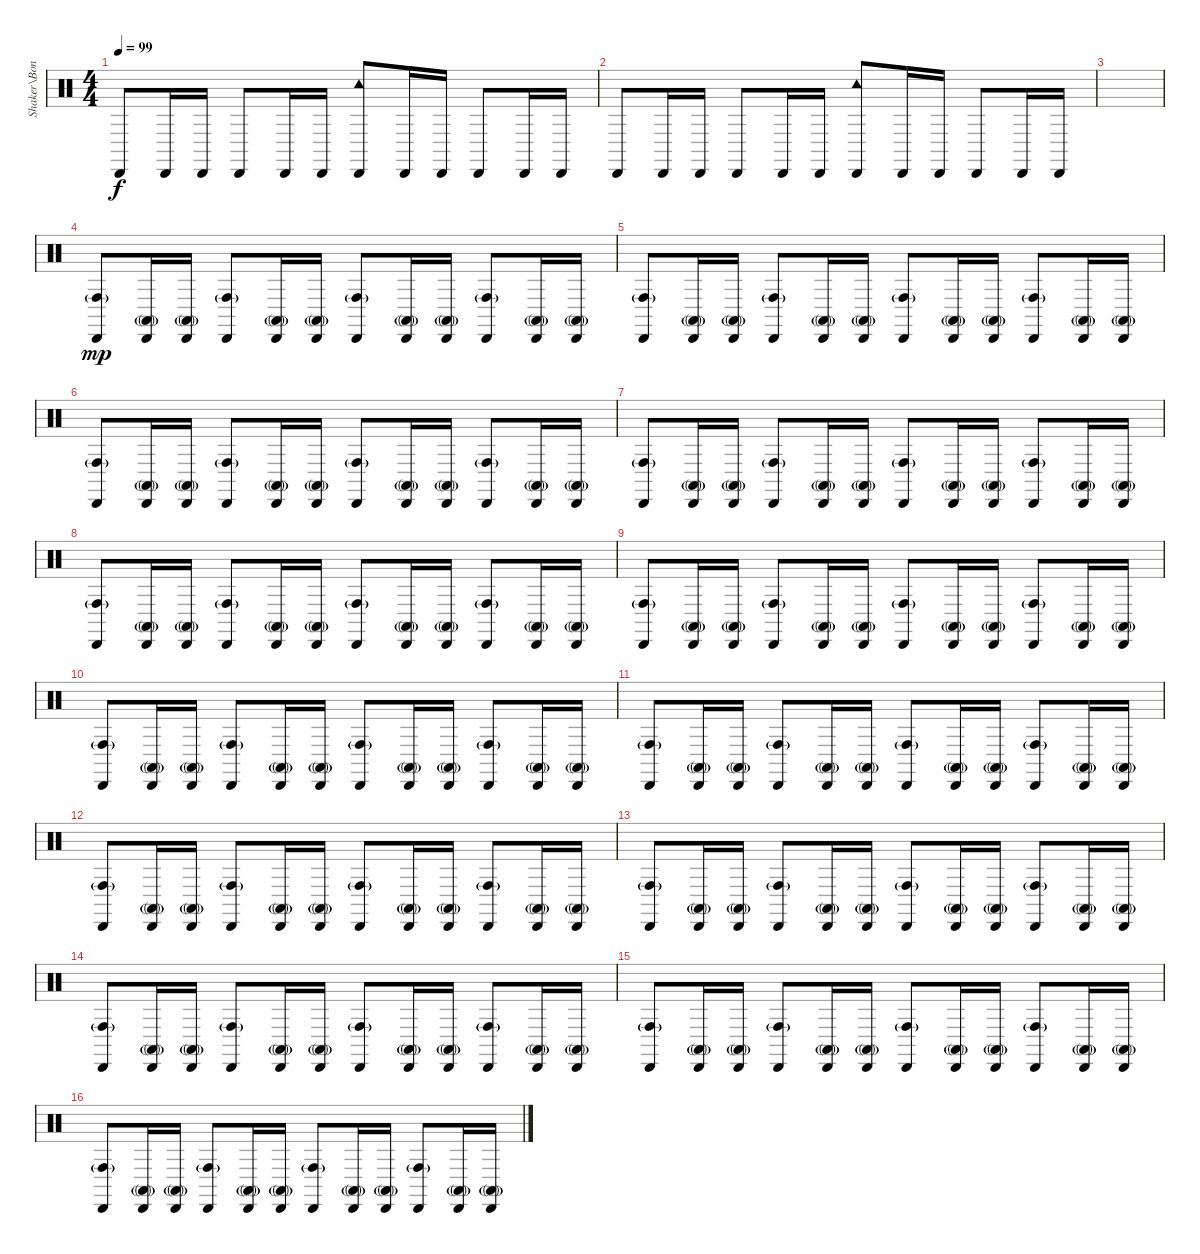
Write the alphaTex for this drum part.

\track ("Shaker\\Bongos" "Shaker\\Bon") {instrument percussion}
\staff {score}
\articulation defaults
\ts (4 4)
\tempo 99
\clef neutral
\ks c "Cabasa (hit)".8{dy f} "Cabasa (hit)".16 "Cabasa (hit)".16 "Cabasa (hit)".8 "Cabasa (hit)".16 "Cabasa (hit)".16
("Cabasa (hit)" "Tambourine (hit)").8 "Cabasa (hit)".16 "Cabasa (hit)".16 "Cabasa (hit)".8 "Cabasa (hit)".16 "Cabasa (hit)".16 |
"Cabasa (hit)".8 "Cabasa (hit)".16 "Cabasa (hit)".16 "Cabasa (hit)".8 "Cabasa (hit)".16 "Cabasa (hit)".16 ("Cabasa (hit)" "Tambourine (hit)").8 "Cabasa (hit)".16 "Cabasa (hit)".16 "Cabasa (hit)".8 "Cabasa (hit)".16 "Cabasa (hit)".16 |
|
("Cabasa (hit)" "Conga high (hit)"{g}).8{dy mp} ("Cabasa (hit)" "Conga high (mute)"{g}).16 ("Cabasa (hit)" "Conga high (mute)"{g}).16 ("Cabasa (hit)" "Conga high (hit)"{g}).8 ("Cabasa (hit)" "Conga high (mute)"{g}).16 ("Cabasa (hit)" "Conga high (mute)"{g}).16 ("Cabasa (hit)" "Conga high (hit)"{g}).8 ("Cabasa (hit)" "Conga high (mute)"{g}).16 ("Cabasa (hit)" "Conga high (mute)"{g}).16 ("Cabasa (hit)" "Conga high (hit)"{g}).8 ("Cabasa (hit)" "Conga high (mute)"{g}).16 ("Cabasa (hit)" "Conga high (mute)"{g}).16 |
("Cabasa (hit)" "Conga high (hit)"{g}).8 ("Cabasa (hit)" "Conga high (mute)"{g}).16 ("Cabasa (hit)" "Conga high (mute)"{g}).16 ("Cabasa (hit)" "Conga high (hit)"{g}).8 ("Cabasa (hit)" "Conga high (mute)"{g}).16 ("Cabasa (hit)" "Conga high (mute)"{g}).16 ("Cabasa (hit)" "Conga high (hit)"{g}).8 ("Cabasa (hit)" "Conga high (mute)"{g}).16 ("Cabasa (hit)" "Conga high (mute)"{g}).16 ("Cabasa (hit)" "Conga high (hit)"{g}).8 ("Cabasa (hit)" "Conga high (mute)"{g}).16 ("Cabasa (hit)" "Conga high (mute)"{g}).16 |
("Cabasa (hit)" "Conga high (hit)"{g}).8 ("Cabasa (hit)" "Conga high (mute)"{g}).16 ("Cabasa (hit)" "Conga high (mute)"{g}).16 ("Cabasa (hit)" "Conga high (hit)"{g}).8 ("Cabasa (hit)" "Conga high (mute)"{g}).16 ("Cabasa (hit)" "Conga high (mute)"{g}).16 ("Cabasa (hit)" "Conga high (hit)"{g}).8 ("Cabasa (hit)" "Conga high (mute)"{g}).16 ("Cabasa (hit)" "Conga high (mute)"{g}).16 ("Cabasa (hit)" "Conga high (hit)"{g}).8 ("Cabasa (hit)" "Conga high (mute)"{g}).16 ("Cabasa (hit)" "Conga high (mute)"{g}).16 |
("Cabasa (hit)" "Conga high (hit)"{g}).8 ("Cabasa (hit)" "Conga high (mute)"{g}).16 ("Cabasa (hit)" "Conga high (mute)"{g}).16 ("Cabasa (hit)" "Conga high (hit)"{g}).8 ("Cabasa (hit)" "Conga high (mute)"{g}).16 ("Cabasa (hit)" "Conga high (mute)"{g}).16 ("Cabasa (hit)" "Conga high (hit)"{g}).8 ("Cabasa (hit)" "Conga high (mute)"{g}).16 ("Cabasa (hit)" "Conga high (mute)"{g}).16 ("Cabasa (hit)" "Conga high (hit)"{g}).8 ("Cabasa (hit)" "Conga high (mute)"{g}).16 ("Cabasa (hit)" "Conga high (mute)"{g}).16 |
("Cabasa (hit)" "Conga high (hit)"{g}).8 ("Cabasa (hit)" "Conga high (mute)"{g}).16 ("Cabasa (hit)" "Conga high (mute)"{g}).16 ("Cabasa (hit)" "Conga high (hit)"{g}).8 ("Cabasa (hit)" "Conga high (mute)"{g}).16 ("Cabasa (hit)" "Conga high (mute)"{g}).16 ("Cabasa (hit)" "Conga high (hit)"{g}).8 ("Cabasa (hit)" "Conga high (mute)"{g}).16 ("Cabasa (hit)" "Conga high (mute)"{g}).16 ("Cabasa (hit)" "Conga high (hit)"{g}).8 ("Cabasa (hit)" "Conga high (mute)"{g}).16 ("Cabasa (hit)" "Conga high (mute)"{g}).16 |
("Cabasa (hit)" "Conga high (hit)"{g}).8 ("Cabasa (hit)" "Conga high (mute)"{g}).16 ("Cabasa (hit)" "Conga high (mute)"{g}).16 ("Cabasa (hit)" "Conga high (hit)"{g}).8 ("Cabasa (hit)" "Conga high (mute)"{g}).16 ("Cabasa (hit)" "Conga high (mute)"{g}).16 ("Cabasa (hit)" "Conga high (hit)"{g}).8 ("Cabasa (hit)" "Conga high (mute)"{g}).16 ("Cabasa (hit)" "Conga high (mute)"{g}).16 ("Cabasa (hit)" "Conga high (hit)"{g}).8 ("Cabasa (hit)" "Conga high (mute)"{g}).16 ("Cabasa (hit)" "Conga high (mute)"{g}).16 |
("Cabasa (hit)" "Conga high (hit)"{g}).8 ("Cabasa (hit)" "Conga high (mute)"{g}).16 ("Cabasa (hit)" "Conga high (mute)"{g}).16 ("Cabasa (hit)" "Conga high (hit)"{g}).8 ("Cabasa (hit)" "Conga high (mute)"{g}).16 ("Cabasa (hit)" "Conga high (mute)"{g}).16 ("Cabasa (hit)" "Conga high (hit)"{g}).8 ("Cabasa (hit)" "Conga high (mute)"{g}).16 ("Cabasa (hit)" "Conga high (mute)"{g}).16 ("Cabasa (hit)" "Conga high (hit)"{g}).8 ("Cabasa (hit)" "Conga high (mute)"{g}).16 ("Cabasa (hit)" "Conga high (mute)"{g}).16 |
("Cabasa (hit)" "Conga high (hit)"{g}).8 ("Cabasa (hit)" "Conga high (mute)"{g}).16 ("Cabasa (hit)" "Conga high (mute)"{g}).16 ("Cabasa (hit)" "Conga high (hit)"{g}).8 ("Cabasa (hit)" "Conga high (mute)"{g}).16 ("Cabasa (hit)" "Conga high (mute)"{g}).16 ("Cabasa (hit)" "Conga high (hit)"{g}).8 ("Cabasa (hit)" "Conga high (mute)"{g}).16 ("Cabasa (hit)" "Conga high (mute)"{g}).16 ("Cabasa (hit)" "Conga high (hit)"{g}).8 ("Cabasa (hit)" "Conga high (mute)"{g}).16 ("Cabasa (hit)" "Conga high (mute)"{g}).16 |
("Cabasa (hit)" "Conga high (hit)"{g}).8 ("Cabasa (hit)" "Conga high (mute)"{g}).16 ("Cabasa (hit)" "Conga high (mute)"{g}).16 ("Cabasa (hit)" "Conga high (hit)"{g}).8 ("Cabasa (hit)" "Conga high (mute)"{g}).16 ("Cabasa (hit)" "Conga high (mute)"{g}).16 ("Cabasa (hit)" "Conga high (hit)"{g}).8 ("Cabasa (hit)" "Conga high (mute)"{g}).16 ("Cabasa (hit)" "Conga high (mute)"{g}).16 ("Cabasa (hit)" "Conga high (hit)"{g}).8 ("Cabasa (hit)" "Conga high (mute)"{g}).16 ("Cabasa (hit)" "Conga high (mute)"{g}).16 |
("Cabasa (hit)" "Conga high (hit)"{g}).8 ("Cabasa (hit)" "Conga high (mute)"{g}).16 ("Cabasa (hit)" "Conga high (mute)"{g}).16 ("Cabasa (hit)" "Conga high (hit)"{g}).8 ("Cabasa (hit)" "Conga high (mute)"{g}).16 ("Cabasa (hit)" "Conga high (mute)"{g}).16 ("Cabasa (hit)" "Conga high (hit)"{g}).8 ("Cabasa (hit)" "Conga high (mute)"{g}).16 ("Cabasa (hit)" "Conga high (mute)"{g}).16 ("Cabasa (hit)" "Conga high (hit)"{g}).8 ("Cabasa (hit)" "Conga high (mute)"{g}).16 ("Cabasa (hit)" "Conga high (mute)"{g}).16 |
("Cabasa (hit)" "Conga high (hit)"{g}).8 ("Cabasa (hit)" "Conga high (mute)"{g}).16 ("Cabasa (hit)" "Conga high (mute)"{g}).16 ("Cabasa (hit)" "Conga high (hit)"{g}).8 ("Cabasa (hit)" "Conga high (mute)"{g}).16 ("Cabasa (hit)" "Conga high (mute)"{g}).16 ("Cabasa (hit)" "Conga high (hit)"{g}).8 ("Cabasa (hit)" "Conga high (mute)"{g}).16 ("Cabasa (hit)" "Conga high (mute)"{g}).16 ("Cabasa (hit)" "Conga high (hit)"{g}).8 ("Cabasa (hit)" "Conga high (mute)"{g}).16 ("Cabasa (hit)" "Conga high (mute)"{g}).16 |
("Cabasa (hit)" "Conga high (hit)"{g}).8 ("Cabasa (hit)" "Conga high (mute)"{g}).16 ("Cabasa (hit)" "Conga high (mute)"{g}).16 ("Cabasa (hit)" "Conga high (hit)"{g}).8 ("Cabasa (hit)" "Conga high (mute)"{g}).16 ("Cabasa (hit)" "Conga high (mute)"{g}).16 ("Cabasa (hit)" "Conga high (hit)"{g}).8 ("Cabasa (hit)" "Conga high (mute)"{g}).16 ("Cabasa (hit)" "Conga high (mute)"{g}).16 ("Cabasa (hit)" "Conga high (hit)"{g}).8 ("Cabasa (hit)" "Conga high (mute)"{g}).16 ("Cabasa (hit)" "Conga high (mute)"{g}).16 |
("Cabasa (hit)" "Conga high (hit)"{g}).8 ("Cabasa (hit)" "Conga high (mute)"{g}).16 ("Cabasa (hit)" "Conga high (mute)"{g}).16 ("Cabasa (hit)" "Conga high (hit)"{g}).8 ("Cabasa (hit)" "Conga high (mute)"{g}).16 ("Cabasa (hit)" "Conga high (mute)"{g}).16 ("Cabasa (hit)" "Conga high (hit)"{g}).8 ("Cabasa (hit)" "Conga high (mute)"{g}).16 ("Cabasa (hit)" "Conga high (mute)"{g}).16 ("Cabasa (hit)" "Conga high (hit)"{g}).8 ("Cabasa (hit)" "Conga high (mute)"{g}).16 ("Cabasa (hit)" "Conga high (mute)"{g}).16
